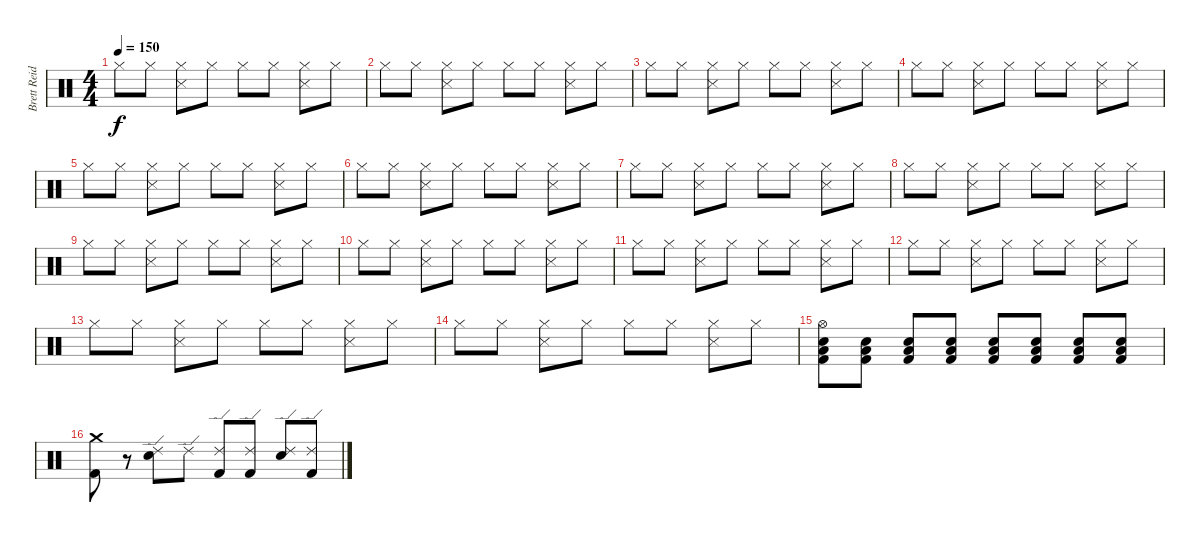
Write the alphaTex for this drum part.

\track ("Brett Reid" "Brett Reid") {instrument percussion}
\staff {score}
\articulation defaults
\ts (4 4)
\tempo 150
\clef neutral
\ks c "Hi-Hat (closed)".8{dy f} "Hi-Hat (closed)".8
("Snare (side stick) 3" "Hi-Hat (closed)").8 "Hi-Hat (closed)".8 "Hi-Hat (closed)".8 "Hi-Hat (closed)".8 ("Snare (side stick) 3" "Hi-Hat (closed)").8 "Hi-Hat (closed)".8 |
"Hi-Hat (closed)".8 "Hi-Hat (closed)".8 ("Snare (side stick) 3" "Hi-Hat (closed)").8 "Hi-Hat (closed)".8 "Hi-Hat (closed)".8 "Hi-Hat (closed)".8 ("Snare (side stick) 3" "Hi-Hat (closed)").8 "Hi-Hat (closed)".8 |
"Hi-Hat (closed)".8 "Hi-Hat (closed)".8 ("Snare (side stick) 3" "Hi-Hat (closed)").8 "Hi-Hat (closed)".8 "Hi-Hat (closed)".8 "Hi-Hat (closed)".8 ("Snare (side stick) 3" "Hi-Hat (closed)").8 "Hi-Hat (closed)".8 |
"Hi-Hat (closed)".8 "Hi-Hat (closed)".8 ("Snare (side stick) 3" "Hi-Hat (closed)").8 "Hi-Hat (closed)".8 "Hi-Hat (closed)".8 "Hi-Hat (closed)".8 ("Snare (side stick) 3" "Hi-Hat (closed)").8 "Hi-Hat (closed)".8 |
"Hi-Hat (closed)".8 "Hi-Hat (closed)".8 ("Snare (side stick) 3" "Hi-Hat (closed)").8 "Hi-Hat (closed)".8 "Hi-Hat (closed)".8 "Hi-Hat (closed)".8 ("Snare (side stick) 3" "Hi-Hat (closed)").8 "Hi-Hat (closed)".8 |
"Hi-Hat (closed)".8 "Hi-Hat (closed)".8 ("Snare (side stick) 3" "Hi-Hat (closed)").8 "Hi-Hat (closed)".8 "Hi-Hat (closed)".8 "Hi-Hat (closed)".8 ("Snare (side stick) 3" "Hi-Hat (closed)").8 "Hi-Hat (closed)".8 |
"Hi-Hat (closed)".8 "Hi-Hat (closed)".8 ("Snare (side stick) 3" "Hi-Hat (closed)").8 "Hi-Hat (closed)".8 "Hi-Hat (closed)".8 "Hi-Hat (closed)".8 ("Snare (side stick) 3" "Hi-Hat (closed)").8 "Hi-Hat (closed)".8 |
"Hi-Hat (closed)".8 "Hi-Hat (closed)".8 ("Snare (side stick) 3" "Hi-Hat (closed)").8 "Hi-Hat (closed)".8 "Hi-Hat (closed)".8 "Hi-Hat (closed)".8 ("Snare (side stick) 3" "Hi-Hat (closed)").8 "Hi-Hat (closed)".8 |
"Hi-Hat (closed)".8 "Hi-Hat (closed)".8 ("Snare (side stick) 3" "Hi-Hat (closed)").8 "Hi-Hat (closed)".8 "Hi-Hat (closed)".8 "Hi-Hat (closed)".8 ("Snare (side stick) 3" "Hi-Hat (closed)").8 "Hi-Hat (closed)".8 |
"Hi-Hat (closed)".8 "Hi-Hat (closed)".8 ("Snare (side stick) 3" "Hi-Hat (closed)").8 "Hi-Hat (closed)".8 "Hi-Hat (closed)".8 "Hi-Hat (closed)".8 ("Snare (side stick) 3" "Hi-Hat (closed)").8 "Hi-Hat (closed)".8 |
"Hi-Hat (closed)".8 "Hi-Hat (closed)".8 ("Snare (side stick) 3" "Hi-Hat (closed)").8 "Hi-Hat (closed)".8 "Hi-Hat (closed)".8 "Hi-Hat (closed)".8 ("Snare (side stick) 3" "Hi-Hat (closed)").8 "Hi-Hat (closed)".8 |
"Hi-Hat (closed)".8 "Hi-Hat (closed)".8 ("Snare (side stick) 3" "Hi-Hat (closed)").8 "Hi-Hat (closed)".8 "Hi-Hat (closed)".8 "Hi-Hat (closed)".8 ("Snare (side stick) 3" "Hi-Hat (closed)").8 "Hi-Hat (closed)".8 |
"Hi-Hat (closed)".8 "Hi-Hat (closed)".8 ("Snare (side stick) 3" "Hi-Hat (closed)").8 "Hi-Hat (closed)".8 "Hi-Hat (closed)".8 "Hi-Hat (closed)".8 ("Snare (side stick) 3" "Hi-Hat (closed)").8 "Hi-Hat (closed)".8 |
"Hi-Hat (closed)".8 "Hi-Hat (closed)".8 ("Snare (side stick) 3" "Hi-Hat (closed)").8 "Hi-Hat (closed)".8 "Hi-Hat (closed)".8 "Hi-Hat (closed)".8 ("Snare (side stick) 3" "Hi-Hat (closed)").8 "Hi-Hat (closed)".8 |
("Hi-Hat (open)" "Low Floor Tom (hit)" "Snare (hit) 2" "Kick (hit) 2").8 ("Low Floor Tom (hit)" "Snare (hit) 2" "Kick (hit) 2").8 ("Low Floor Tom (hit)" "Snare (hit) 2" "Kick (hit) 2").8 ("Low Floor Tom (hit)" "Snare (hit) 2" "Kick (hit) 2").8 ("Low Floor Tom (hit)" "Snare (hit) 2" "Kick (hit) 2").8 ("Low Floor Tom (hit)" "Snare (hit) 2" "Kick (hit) 2").8 ("Low Floor Tom (hit)" "Snare (hit) 2" "Kick (hit) 2").8 ("Low Floor Tom (hit)" "Snare (hit) 2" "Kick (hit) 2").8 |
("Crash medium (hit)" "Kick (hit) 2").8 r.8 ("Ride (edge) 2" "Snare (hit) 2").8 "Ride (edge) 2".8 ("Ride (edge) 2" "Kick (hit) 2").8 ("Ride (edge) 2" "Kick (hit) 2").8 ("Ride (edge) 2" "Snare (hit) 2").8 ("Ride (edge) 2" "Kick (hit) 2").8
